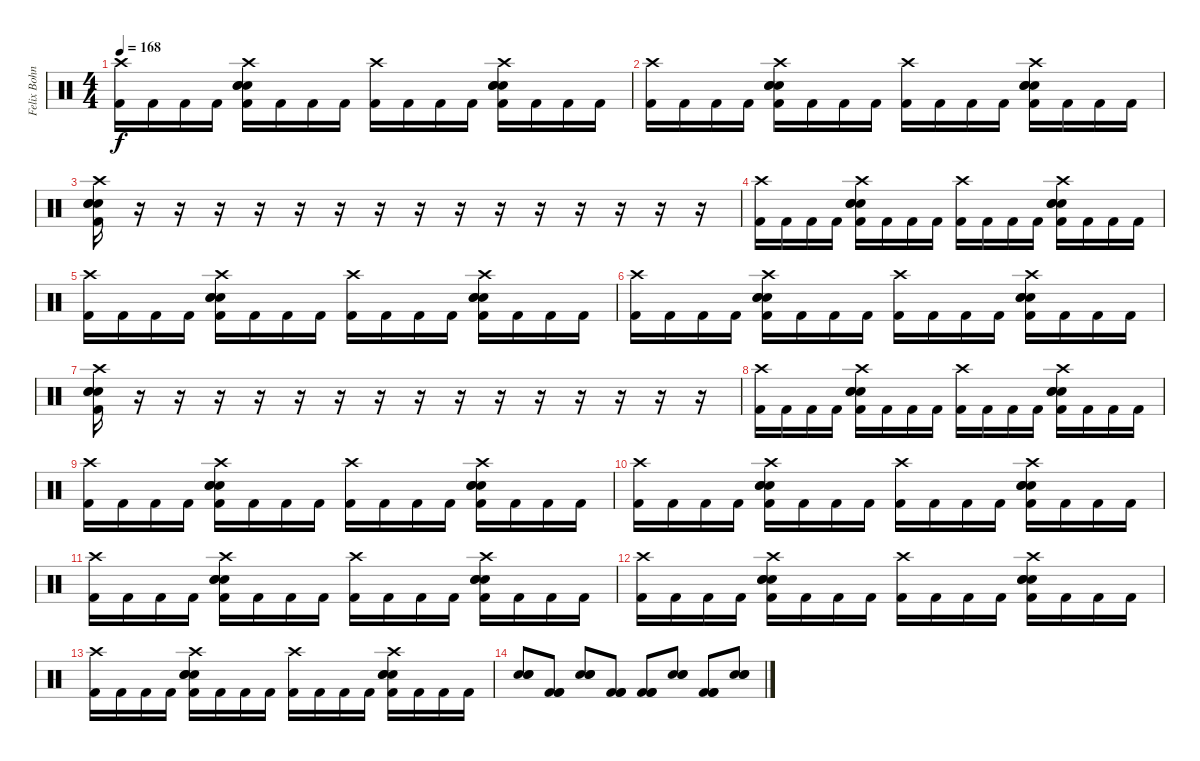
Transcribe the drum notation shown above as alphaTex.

\track ("Felix Bohnke" "Felix Bohn") {instrument percussion}
\staff {score}
\articulation defaults
\ts (4 4)
\tempo 168
\clef neutral
\ks c
("Crash high (hit)" "Kick (hit) 2").16{dy f} "Kick (hit) 2".16 "Kick (hit) 2".16 "Kick (hit) 2".16 ("Crash high (hit)" "Electric Snare (hit)" "Electric Snare (hit)" "Electric Snare (hit)" "Kick (hit) 2").16 "Kick (hit) 2".16 "Kick (hit) 2".16 "Kick (hit) 2".16 ("Crash high (hit)" "Kick (hit) 2").16 "Kick (hit) 2".16 "Kick (hit) 2".16 "Kick (hit) 2".16 ("Crash high (hit)" "Electric Snare (hit)" "Electric Snare (hit)" "Electric Snare (hit)" "Kick (hit) 2").16 "Kick (hit) 2".16 "Kick (hit) 2".16 "Kick (hit) 2".16 |
("Crash high (hit)" "Kick (hit) 2").16 "Kick (hit) 2".16 "Kick (hit) 2".16 "Kick (hit) 2".16 ("Crash high (hit)" "Electric Snare (hit)" "Electric Snare (hit)" "Electric Snare (hit)" "Kick (hit) 2").16 "Kick (hit) 2".16 "Kick (hit) 2".16 "Kick (hit) 2".16 ("Crash high (hit)" "Kick (hit) 2").16 "Kick (hit) 2".16 "Kick (hit) 2".16 "Kick (hit) 2".16 ("Crash high (hit)" "Electric Snare (hit)" "Electric Snare (hit)" "Electric Snare (hit)" "Kick (hit) 2").16 "Kick (hit) 2".16 "Kick (hit) 2".16 "Kick (hit) 2".16 |
("Crash high (hit)" "Electric Snare (hit)" "Electric Snare (hit)" "Electric Snare (hit)" "Kick (hit) 2").16 r.16 r.16 r.16 r.16 r.16 r.16 r.16 r.16 r.16 r.16 r.16 r.16 r.16 r.16 r.16 |
("Crash high (hit)" "Kick (hit) 2").16 "Kick (hit) 2".16 "Kick (hit) 2".16 "Kick (hit) 2".16 ("Crash high (hit)" "Electric Snare (hit)" "Electric Snare (hit)" "Electric Snare (hit)" "Kick (hit) 2").16 "Kick (hit) 2".16 "Kick (hit) 2".16 "Kick (hit) 2".16 ("Crash high (hit)" "Kick (hit) 2").16 "Kick (hit) 2".16 "Kick (hit) 2".16 "Kick (hit) 2".16 ("Crash high (hit)" "Electric Snare (hit)" "Electric Snare (hit)" "Electric Snare (hit)" "Kick (hit) 2").16 "Kick (hit) 2".16 "Kick (hit) 2".16 "Kick (hit) 2".16 |
("Crash high (hit)" "Kick (hit) 2").16 "Kick (hit) 2".16 "Kick (hit) 2".16 "Kick (hit) 2".16 ("Crash high (hit)" "Electric Snare (hit)" "Electric Snare (hit)" "Electric Snare (hit)" "Kick (hit) 2").16 "Kick (hit) 2".16 "Kick (hit) 2".16 "Kick (hit) 2".16 ("Crash high (hit)" "Kick (hit) 2").16 "Kick (hit) 2".16 "Kick (hit) 2".16 "Kick (hit) 2".16 ("Crash high (hit)" "Electric Snare (hit)" "Electric Snare (hit)" "Electric Snare (hit)" "Kick (hit) 2").16 "Kick (hit) 2".16 "Kick (hit) 2".16 "Kick (hit) 2".16 |
("Crash high (hit)" "Kick (hit) 2").16 "Kick (hit) 2".16 "Kick (hit) 2".16 "Kick (hit) 2".16 ("Crash high (hit)" "Electric Snare (hit)" "Electric Snare (hit)" "Electric Snare (hit)" "Kick (hit) 2").16 "Kick (hit) 2".16 "Kick (hit) 2".16 "Kick (hit) 2".16 ("Crash high (hit)" "Kick (hit) 2").16 "Kick (hit) 2".16 "Kick (hit) 2".16 "Kick (hit) 2".16 ("Crash high (hit)" "Electric Snare (hit)" "Electric Snare (hit)" "Electric Snare (hit)" "Kick (hit) 2").16 "Kick (hit) 2".16 "Kick (hit) 2".16 "Kick (hit) 2".16 |
("Crash high (hit)" "Electric Snare (hit)" "Electric Snare (hit)" "Electric Snare (hit)" "Kick (hit) 2").16 r.16 r.16 r.16 r.16 r.16 r.16 r.16 r.16 r.16 r.16 r.16 r.16 r.16 r.16 r.16 |
("Crash high (hit)" "Kick (hit) 2").16 "Kick (hit) 2".16 "Kick (hit) 2".16 "Kick (hit) 2".16 ("Crash high (hit)" "Electric Snare (hit)" "Electric Snare (hit)" "Electric Snare (hit)" "Kick (hit) 2").16 "Kick (hit) 2".16 "Kick (hit) 2".16 "Kick (hit) 2".16 ("Crash high (hit)" "Kick (hit) 2").16 "Kick (hit) 2".16 "Kick (hit) 2".16 "Kick (hit) 2".16 ("Crash high (hit)" "Electric Snare (hit)" "Electric Snare (hit)" "Electric Snare (hit)" "Kick (hit) 2").16 "Kick (hit) 2".16 "Kick (hit) 2".16 "Kick (hit) 2".16 |
("Crash high (hit)" "Kick (hit) 2").16 "Kick (hit) 2".16 "Kick (hit) 2".16 "Kick (hit) 2".16 ("Crash high (hit)" "Electric Snare (hit)" "Electric Snare (hit)" "Electric Snare (hit)" "Kick (hit) 2").16 "Kick (hit) 2".16 "Kick (hit) 2".16 "Kick (hit) 2".16 ("Crash high (hit)" "Kick (hit) 2").16 "Kick (hit) 2".16 "Kick (hit) 2".16 "Kick (hit) 2".16 ("Crash high (hit)" "Electric Snare (hit)" "Electric Snare (hit)" "Electric Snare (hit)" "Kick (hit) 2").16 "Kick (hit) 2".16 "Kick (hit) 2".16 "Kick (hit) 2".16 |
("Crash high (hit)" "Kick (hit) 2").16 "Kick (hit) 2".16 "Kick (hit) 2".16 "Kick (hit) 2".16 ("Crash high (hit)" "Electric Snare (hit)" "Electric Snare (hit)" "Electric Snare (hit)" "Kick (hit) 2").16 "Kick (hit) 2".16 "Kick (hit) 2".16 "Kick (hit) 2".16 ("Crash high (hit)" "Kick (hit) 2").16 "Kick (hit) 2".16 "Kick (hit) 2".16 "Kick (hit) 2".16 ("Crash high (hit)" "Electric Snare (hit)" "Electric Snare (hit)" "Electric Snare (hit)" "Kick (hit) 2").16 "Kick (hit) 2".16 "Kick (hit) 2".16 "Kick (hit) 2".16 |
("Crash high (hit)" "Kick (hit) 2").16 "Kick (hit) 2".16 "Kick (hit) 2".16 "Kick (hit) 2".16 ("Crash high (hit)" "Electric Snare (hit)" "Electric Snare (hit)" "Electric Snare (hit)" "Kick (hit) 2").16 "Kick (hit) 2".16 "Kick (hit) 2".16 "Kick (hit) 2".16 ("Crash high (hit)" "Kick (hit) 2").16 "Kick (hit) 2".16 "Kick (hit) 2".16 "Kick (hit) 2".16 ("Crash high (hit)" "Electric Snare (hit)" "Electric Snare (hit)" "Electric Snare (hit)" "Kick (hit) 2").16 "Kick (hit) 2".16 "Kick (hit) 2".16 "Kick (hit) 2".16 |
("Crash high (hit)" "Kick (hit) 2").16 "Kick (hit) 2".16 "Kick (hit) 2".16 "Kick (hit) 2".16 ("Crash high (hit)" "Electric Snare (hit)" "Electric Snare (hit)" "Electric Snare (hit)" "Kick (hit) 2").16 "Kick (hit) 2".16 "Kick (hit) 2".16 "Kick (hit) 2".16 ("Crash high (hit)" "Kick (hit) 2").16 "Kick (hit) 2".16 "Kick (hit) 2".16 "Kick (hit) 2".16 ("Crash high (hit)" "Electric Snare (hit)" "Electric Snare (hit)" "Electric Snare (hit)" "Kick (hit) 2").16 "Kick (hit) 2".16 "Kick (hit) 2".16 "Kick (hit) 2".16 |
("Crash high (hit)" "Kick (hit) 2").16 "Kick (hit) 2".16 "Kick (hit) 2".16 "Kick (hit) 2".16 ("Crash high (hit)" "Electric Snare (hit)" "Electric Snare (hit)" "Electric Snare (hit)" "Kick (hit) 2").16 "Kick (hit) 2".16 "Kick (hit) 2".16 "Kick (hit) 2".16 ("Crash high (hit)" "Kick (hit) 2").16 "Kick (hit) 2".16 "Kick (hit) 2".16 "Kick (hit) 2".16 ("Crash high (hit)" "Electric Snare (hit)" "Electric Snare (hit)" "Electric Snare (hit)" "Kick (hit) 2").16 "Kick (hit) 2".16 "Kick (hit) 2".16 "Kick (hit) 2".16 |
("Electric Snare (hit)" "Electric Snare (hit)" "Electric Snare (hit)").8 ("Kick (hit) 2" "Kick (hit) 2" "Kick (hit) 2").8 ("Electric Snare (hit)" "Electric Snare (hit)" "Electric Snare (hit)").8 ("Kick (hit) 2" "Kick (hit) 2" "Kick (hit) 2").8 ("Kick (hit) 2" "Kick (hit) 2" "Kick (hit) 2").8 ("Electric Snare (hit)" "Electric Snare (hit)" "Electric Snare (hit)").8 ("Kick (hit) 2" "Kick (hit) 2" "Kick (hit) 2").8 ("Electric Snare (hit)" "Electric Snare (hit)" "Electric Snare (hit)").8
